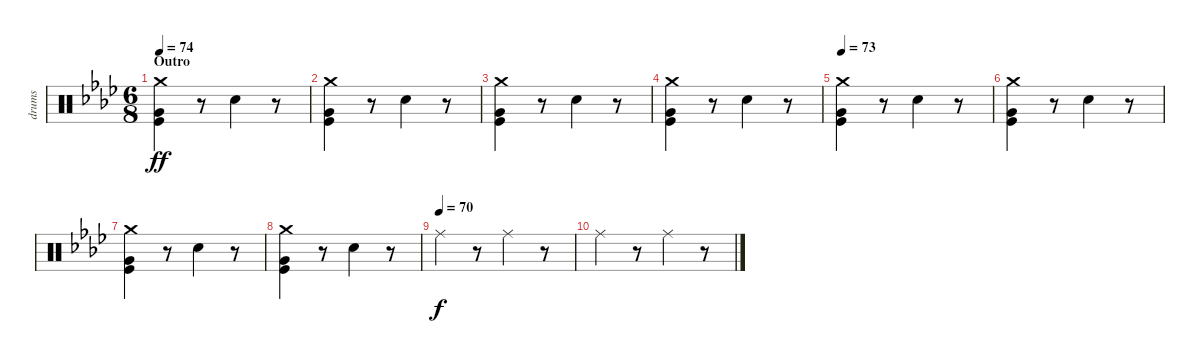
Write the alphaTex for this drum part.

\track ("drums" "drums") {instrument percussion}
\staff {score}
\articulation defaults
\ts (6 8)
\section ("" "Outro")
\tempo 74
\clef neutral
\ks ab
("Crash medium (hit)" "Very Low Tom (hit)" "Kick (hit)").4{dy ff} r.8 "Electric Snare (hit)".4 r.8 |
("Crash medium (hit)" "Very Low Tom (hit)" "Kick (hit)").4 r.8 "Electric Snare (hit)".4 r.8 |
("Crash medium (hit)" "Very Low Tom (hit)" "Kick (hit)").4 r.8 "Electric Snare (hit)".4 r.8 |
("Crash medium (hit)" "Very Low Tom (hit)" "Kick (hit)").4 r.8 "Electric Snare (hit)".4 r.8 |
\tempo 73
("Crash medium (hit)" "Very Low Tom (hit)" "Kick (hit)").4 r.8 "Electric Snare (hit)".4 r.8 |
("Crash medium (hit)" "Very Low Tom (hit)" "Kick (hit)").4 r.8 "Electric Snare (hit)".4 r.8 |
("Crash medium (hit)" "Very Low Tom (hit)" "Kick (hit)").4 r.8 "Electric Snare (hit)".4 r.8 |
("Crash medium (hit)" "Very Low Tom (hit)" "Kick (hit)").4 r.8 "Electric Snare (hit)".4 r.8 |
\tempo (70)
"Ride (middle)".4{dy f} r.8 "Ride (middle)".4 r.8 |
"Ride (middle)".4 r.8 "Ride (middle)".4 r.8
